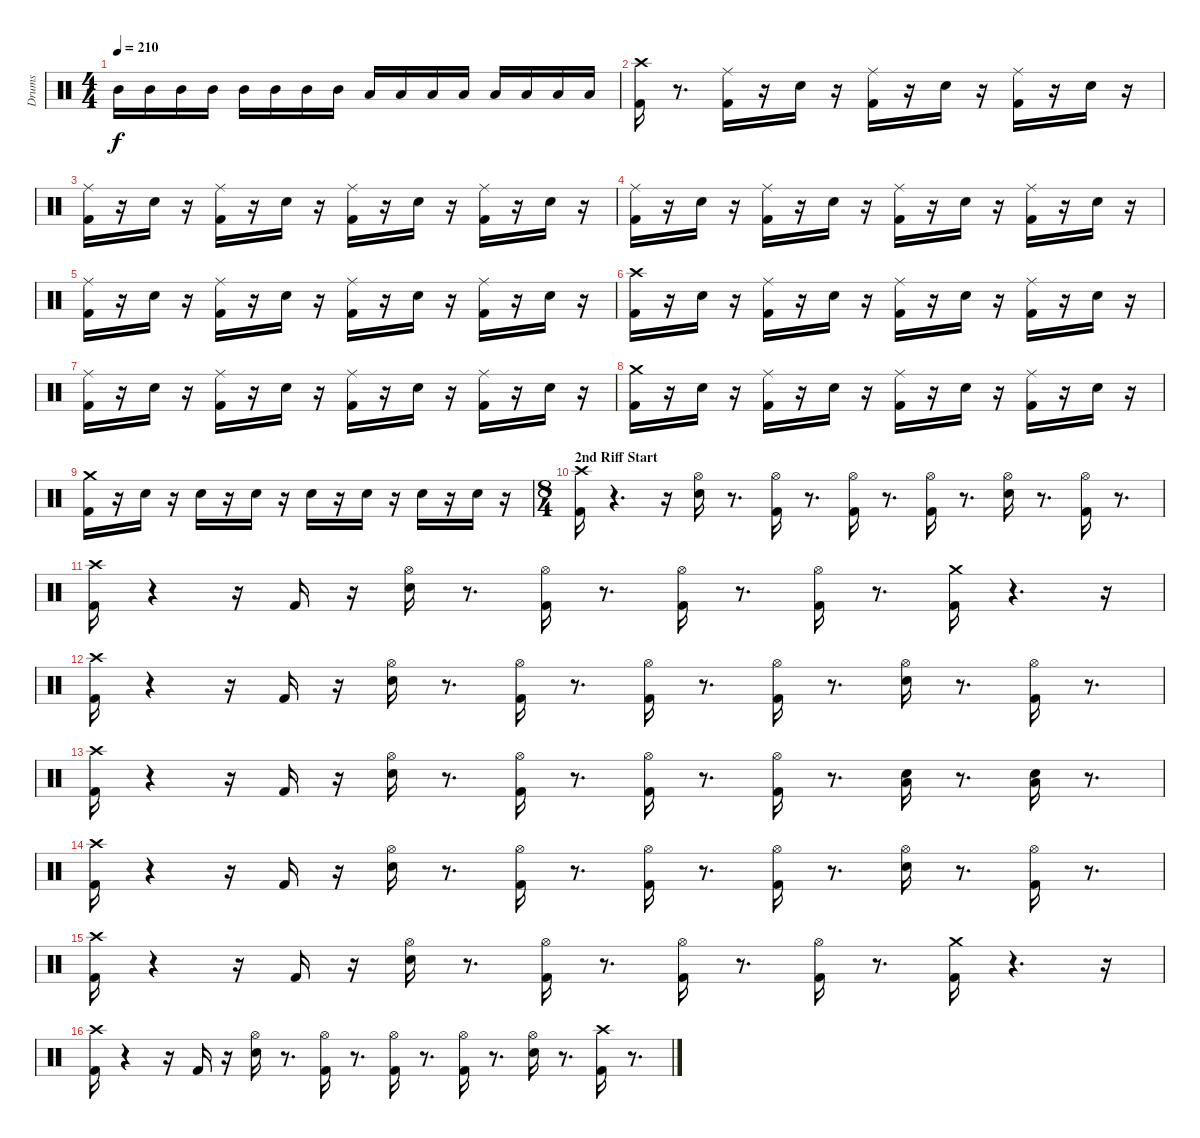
\track ("Drums" "Drums") {instrument percussion}
\staff {score}
\articulation defaults
\ts (4 4)
\tempo 210
\clef neutral
\ks c "Mid Tom (hit)".16{dy f} "Mid Tom (hit)".16 "Mid Tom (hit)".16 "Mid Tom (hit)".16 "Mid Tom (hit)".16 "Mid Tom (hit)".16 "Mid Tom (hit)".16 "Mid Tom (hit)".16 "Low Tom (hit)".16 "Low Tom (hit)".16 "Low Tom (hit)".16 "Low Tom (hit)".16 "Low Tom (hit)".16 "Low Tom (hit)".16 "Low Tom (hit)".16 "Low Tom (hit)".16
|
("Kick (hit) 2" "Crash high (hit)").16 r.8{d} ("Ride (middle)" "Kick (hit) 2").16 r.16 "Snare (hit) 2".16 r.16 ("Kick (hit) 2" "Ride (middle)").16 r.16 "Snare (hit) 2".16 r.16 ("Ride (middle)" "Kick (hit) 2").16 r.16 "Snare (hit) 2".16 r.16 |
("Ride (middle)" "Kick (hit) 2").16 r.16 "Snare (hit) 2".16 r.16 ("Kick (hit) 2" "Ride (middle)").16 r.16 "Snare (hit) 2".16 r.16 ("Ride (middle)" "Kick (hit) 2").16 r.16 "Snare (hit) 2".16 r.16 ("Kick (hit) 2" "Ride (middle)").16 r.16 "Snare (hit) 2".16 r.16 |
("Ride (middle)" "Kick (hit) 2").16 r.16 "Snare (hit) 2".16 r.16 ("Kick (hit) 2" "Ride (middle)").16 r.16 "Snare (hit) 2".16 r.16 ("Kick (hit) 2" "Ride (middle)").16 r.16 "Snare (hit) 2".16 r.16 ("Kick (hit) 2" "Ride (middle)").16 r.16 "Snare (hit) 2".16 r.16 |
("Kick (hit) 2" "Ride (middle)").16 r.16 "Snare (hit) 2".16 r.16 ("Kick (hit) 2" "Ride (middle)").16 r.16 "Snare (hit) 2".16 r.16 ("Ride (middle)" "Kick (hit) 2").16 r.16 "Snare (hit) 2".16 r.16 ("Ride (middle)" "Kick (hit) 2").16 r.16 "Snare (hit) 2".16 r.16 |
("Kick (hit) 2" "Crash high (hit)").16 r.16 "Snare (hit) 2".16 r.16 ("Ride (middle)" "Kick (hit) 2").16 r.16 "Snare (hit) 2".16 r.16 ("Kick (hit) 2" "Ride (middle)").16 r.16 "Snare (hit) 2".16 r.16 ("Ride (middle)" "Kick (hit) 2").16 r.16 "Snare (hit) 2".16 r.16 |
("Ride (middle)" "Kick (hit) 2").16 r.16 "Snare (hit) 2".16 r.16 ("Ride (middle)" "Kick (hit) 2").16 r.16 "Snare (hit) 2".16 r.16 ("Kick (hit) 2" "Ride (middle)").16 r.16 "Snare (hit) 2".16 r.16 ("Ride (middle)" "Kick (hit) 2").16 r.16 "Snare (hit) 2".16 r.16 |
("Kick (hit) 2" "Crash medium (hit)").16 r.16 "Snare (hit) 2".16 r.16 ("Ride (middle)" "Kick (hit) 2").16 r.16 "Snare (hit) 2".16 r.16 ("Kick (hit) 2" "Ride (middle)").16 r.16 "Snare (hit) 2".16 r.16 ("Ride (middle)" "Kick (hit) 2").16 r.16 "Snare (hit) 2".16 r.16 |
("Kick (hit) 2" "Crash medium (hit)").16 r.16 "Snare (hit) 2".16 r.16 "Snare (hit) 2".16 r.16 "Snare (hit) 2".16 r.16 "Snare (hit) 2".16 r.16 "Snare (hit) 2".16 r.16 "Snare (hit) 2".16 r.16 "Snare (hit) 2".16 r.16 |
\ts (8 4)
\section ("" "2nd Riff Start")
("Crash high (hit)" "Kick (hit) 2").16 r.4{d} r.16 ("Hi-Hat (open)" "Snare (hit) 2").16 r.8{d} ("Kick (hit) 2" "Hi-Hat (open)").16 r.8{d} ("Kick (hit) 2" "Hi-Hat (open)").16 r.8{d} ("Kick (hit) 2" "Hi-Hat (open)").16 r.8{d} ("Snare (hit) 2" "Hi-Hat (open)").16 r.8{d} ("Hi-Hat (open)" "Kick (hit) 2").16 r.8{d} |
("Crash high (hit)" "Kick (hit) 2").16 r.4 r.16 "Kick (hit) 2".16 r.16 ("Hi-Hat (open)" "Snare (hit) 2").16 r.8{d} ("Kick (hit) 2" "Hi-Hat (open)").16 r.8{d} ("Hi-Hat (open)" "Kick (hit) 2").16 r.8{d} ("Hi-Hat (open)" "Kick (hit) 2").16 r.8{d} ("Crash medium (hit)" "Kick (hit) 2").16 r.4{d} r.16 |
("Crash high (hit)" "Kick (hit) 2").16 r.4 r.16 "Kick (hit) 2".16 r.16 ("Snare (hit) 2" "Hi-Hat (open)").16 r.8{d} ("Kick (hit) 2" "Hi-Hat (open)").16 r.8{d} ("Kick (hit) 2" "Hi-Hat (open)").16 r.8{d} ("Kick (hit) 2" "Hi-Hat (open)").16 r.8{d} ("Hi-Hat (open)" "Snare (hit) 2").16 r.8{d} ("Kick (hit) 2" "Hi-Hat (open)").16 r.8{d} |
("Kick (hit) 2" "Crash high (hit)").16 r.4 r.16 "Kick (hit) 2".16 r.16 ("Snare (hit) 2" "Hi-Hat (open)").16 r.8{d} ("Kick (hit) 2" "Hi-Hat (open)").16 r.8{d} ("Kick (hit) 2" "Hi-Hat (open)").16 r.8{d} ("Hi-Hat (open)" "Kick (hit) 2").16 r.8{d} ("Low Tom (hit)" "Snare (hit) 2").16 r.8{d} ("Snare (hit) 2" "Low Tom (hit)").16 r.8{d} |
("Crash high (hit)" "Kick (hit) 2").16 r.4 r.16 "Kick (hit) 2".16 r.16 ("Snare (hit) 2" "Hi-Hat (open)").16 r.8{d} ("Hi-Hat (open)" "Kick (hit) 2").16 r.8{d} ("Hi-Hat (open)" "Kick (hit) 2").16 r.8{d} ("Hi-Hat (open)" "Kick (hit) 2").16 r.8{d} ("Hi-Hat (open)" "Snare (hit) 2").16 r.8{d} ("Hi-Hat (open)" "Kick (hit) 2").16 r.8{d} |
("Crash high (hit)" "Kick (hit) 2").16 r.4 r.16 "Kick (hit) 2".16 r.16 ("Snare (hit) 2" "Hi-Hat (open)").16 r.8{d} ("Hi-Hat (open)" "Kick (hit) 2").16 r.8{d} ("Kick (hit) 2" "Hi-Hat (open)").16 r.8{d} ("Hi-Hat (open)" "Kick (hit) 2").16 r.8{d} ("Kick (hit) 2" "Crash medium (hit)").16 r.4{d} r.16 |
("Crash high (hit)" "Kick (hit) 2").16 r.4 r.16 "Kick (hit) 2".16 r.16 ("Snare (hit) 2" "Hi-Hat (open)").16 r.8{d} ("Hi-Hat (open)" "Kick (hit) 2").16 r.8{d} ("Hi-Hat (open)" "Kick (hit) 2").16 r.8{d} ("Hi-Hat (open)" "Kick (hit) 2").16 r.8{d} ("Hi-Hat (open)" "Snare (hit) 2").16 r.8{d} ("Kick (hit) 2" "Crash high (hit)").16 r.8{d}
